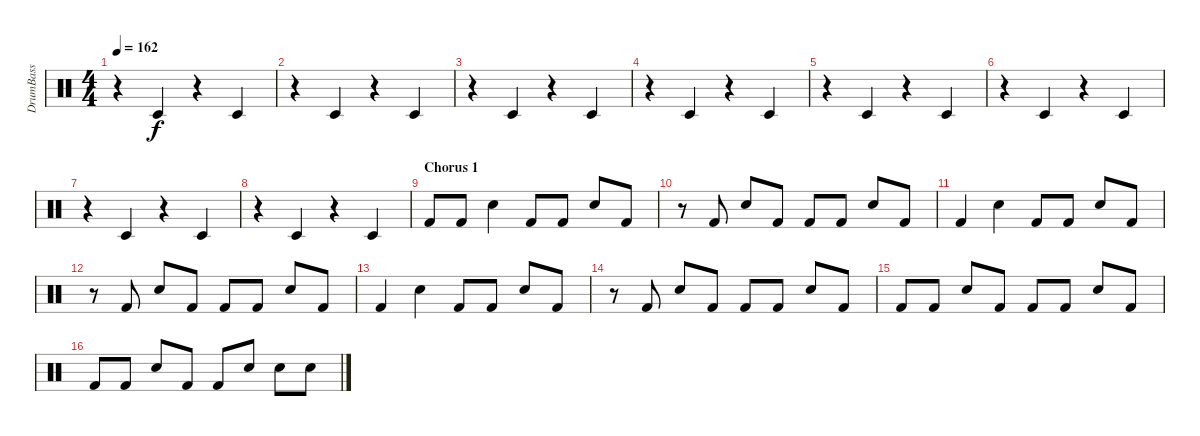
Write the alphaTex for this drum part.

\track ("DrumBass" "DrumBass") {instrument percussion}
\staff {score}
\articulation defaults
\ts (4 4)
\tempo 162
\clef neutral
\ks c
r.4{dy f} "Timbale low (hit)".4 r.4 "Timbale low (hit)".4 |
r.4 "Timbale low (hit)".4 r.4 "Timbale low (hit)".4 |
r.4 "Timbale low (hit)".4 r.4 "Timbale low (hit)".4 |
r.4 "Timbale low (hit)".4 r.4 "Timbale low (hit)".4 |
r.4 "Timbale low (hit)".4 r.4 "Timbale low (hit)".4 |
r.4 "Timbale low (hit)".4 r.4 "Timbale low (hit)".4 |
r.4 "Timbale low (hit)".4 r.4 "Timbale low (hit)".4 |
r.4 "Timbale low (hit)".4 r.4 "Timbale low (hit)".4 |
\section ("" "Chorus 1")
"Kick (hit) 2".8 "Kick (hit) 2".8 "Snare (hit) 2".4 "Kick (hit) 2".8 "Kick (hit) 2".8 "Snare (hit) 2".8 "Kick (hit) 2".8 |
r.8 "Kick (hit) 2".8 "Snare (hit) 2".8 "Kick (hit) 2".8 "Kick (hit) 2".8 "Kick (hit) 2".8 "Snare (hit) 2".8 "Kick (hit) 2".8 |
"Kick (hit) 2".4 "Snare (hit) 2".4 "Kick (hit) 2".8 "Kick (hit) 2".8 "Snare (hit) 2".8 "Kick (hit) 2".8 |
r.8 "Kick (hit) 2".8 "Snare (hit) 2".8 "Kick (hit) 2".8 "Kick (hit) 2".8 "Kick (hit) 2".8 "Snare (hit) 2".8 "Kick (hit) 2".8 |
"Kick (hit) 2".4 "Snare (hit) 2".4 "Kick (hit) 2".8 "Kick (hit) 2".8 "Snare (hit) 2".8 "Kick (hit) 2".8 |
r.8 "Kick (hit) 2".8 "Snare (hit) 2".8 "Kick (hit) 2".8 "Kick (hit) 2".8 "Kick (hit) 2".8 "Snare (hit) 2".8 "Kick (hit) 2".8 |
"Kick (hit) 2".8 "Kick (hit) 2".8 "Snare (hit) 2".8 "Kick (hit) 2".8 "Kick (hit) 2".8 "Kick (hit) 2".8 "Snare (hit) 2".8 "Kick (hit) 2".8 |
"Kick (hit) 2".8 "Kick (hit) 2".8 "Snare (hit) 2".8 "Kick (hit) 2".8 "Kick (hit) 2".8 "Snare (hit) 2"{tr (38 16)}.8 "Snare (hit) 2"{tr (38 16)}.8 "Snare (hit) 2"{tr (38 16)}.8
